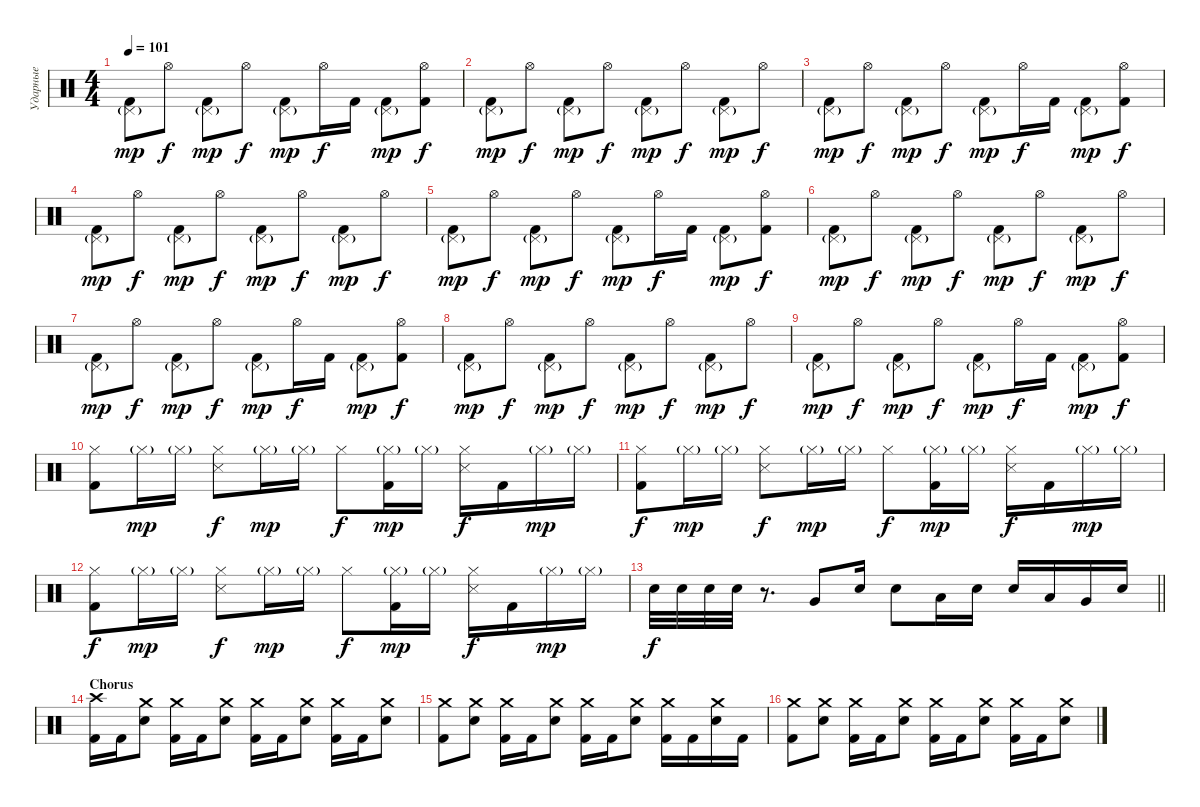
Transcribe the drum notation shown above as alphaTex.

\track ("Ударные" "Ударные") {instrument percussion}
\staff {score}
\articulation defaults
\ts (4 4)
\tempo 101
\clef neutral
\ks c
("Pedal Hi-Hat (hit)"{g} "Kick (hit) 2").8{dy mp} "Hi-Hat (open)".8{dy f} ("Pedal Hi-Hat (hit)"{g} "Kick (hit) 2").8{dy mp} "Hi-Hat (open)".8{dy f} ("Pedal Hi-Hat (hit)"{g} "Kick (hit) 2").8{dy mp} "Hi-Hat (open)".16{dy f} "Kick (hit) 2".16 ("Pedal Hi-Hat (hit)"{g} "Kick (hit) 2").8{dy mp} ("Hi-Hat (open)" "Kick (hit) 2").8{dy f} |
("Pedal Hi-Hat (hit)"{g} "Kick (hit) 2").8{dy mp} "Hi-Hat (open)".8{dy f} ("Pedal Hi-Hat (hit)"{g} "Kick (hit) 2").8{dy mp} "Hi-Hat (open)".8{dy f} ("Pedal Hi-Hat (hit)"{g} "Kick (hit) 2").8{dy mp} "Hi-Hat (open)".8{dy f} ("Pedal Hi-Hat (hit)"{g} "Kick (hit) 2").8{dy mp} "Hi-Hat (open)".8{dy f} |
("Pedal Hi-Hat (hit)"{g} "Kick (hit) 2").8{dy mp} "Hi-Hat (open)".8{dy f} ("Pedal Hi-Hat (hit)"{g} "Kick (hit) 2").8{dy mp} "Hi-Hat (open)".8{dy f} ("Pedal Hi-Hat (hit)"{g} "Kick (hit) 2").8{dy mp} "Hi-Hat (open)".16{dy f} "Kick (hit) 2".16 ("Pedal Hi-Hat (hit)"{g} "Kick (hit) 2").8{dy mp} ("Hi-Hat (open)" "Kick (hit) 2").8{dy f} |
("Pedal Hi-Hat (hit)"{g} "Kick (hit) 2").8{dy mp} "Hi-Hat (open)".8{dy f} ("Pedal Hi-Hat (hit)"{g} "Kick (hit) 2").8{dy mp} "Hi-Hat (open)".8{dy f} ("Pedal Hi-Hat (hit)"{g} "Kick (hit) 2").8{dy mp} "Hi-Hat (open)".8{dy f} ("Pedal Hi-Hat (hit)"{g} "Kick (hit) 2").8{dy mp} "Hi-Hat (open)".8{dy f} |
("Pedal Hi-Hat (hit)"{g} "Kick (hit) 2").8{dy mp} "Hi-Hat (open)".8{dy f} ("Pedal Hi-Hat (hit)"{g} "Kick (hit) 2").8{dy mp} "Hi-Hat (open)".8{dy f} ("Pedal Hi-Hat (hit)"{g} "Kick (hit) 2").8{dy mp} "Hi-Hat (open)".16{dy f} "Kick (hit) 2".16 ("Pedal Hi-Hat (hit)"{g} "Kick (hit) 2").8{dy mp} ("Hi-Hat (open)" "Kick (hit) 2").8{dy f} |
("Pedal Hi-Hat (hit)"{g} "Kick (hit) 2").8{dy mp} "Hi-Hat (open)".8{dy f} ("Pedal Hi-Hat (hit)"{g} "Kick (hit) 2").8{dy mp} "Hi-Hat (open)".8{dy f} ("Pedal Hi-Hat (hit)"{g} "Kick (hit) 2").8{dy mp} "Hi-Hat (open)".8{dy f} ("Pedal Hi-Hat (hit)"{g} "Kick (hit) 2").8{dy mp} "Hi-Hat (open)".8{dy f} |
("Pedal Hi-Hat (hit)"{g} "Kick (hit) 2").8{dy mp} "Hi-Hat (open)".8{dy f} ("Pedal Hi-Hat (hit)"{g} "Kick (hit) 2").8{dy mp} "Hi-Hat (open)".8{dy f} ("Pedal Hi-Hat (hit)"{g} "Kick (hit) 2").8{dy mp} "Hi-Hat (open)".16{dy f} "Kick (hit) 2".16 ("Pedal Hi-Hat (hit)"{g} "Kick (hit) 2").8{dy mp} ("Hi-Hat (open)" "Kick (hit) 2").8{dy f} |
("Pedal Hi-Hat (hit)"{g} "Kick (hit) 2").8{dy mp} "Hi-Hat (open)".8{dy f} ("Pedal Hi-Hat (hit)"{g} "Kick (hit) 2").8{dy mp} "Hi-Hat (open)".8{dy f} ("Pedal Hi-Hat (hit)"{g} "Kick (hit) 2").8{dy mp} "Hi-Hat (open)".8{dy f} ("Pedal Hi-Hat (hit)"{g} "Kick (hit) 2").8{dy mp} "Hi-Hat (open)".8{dy f} |
("Pedal Hi-Hat (hit)"{g} "Kick (hit) 2").8{dy mp} "Hi-Hat (open)".8{dy f} ("Pedal Hi-Hat (hit)"{g} "Kick (hit) 2").8{dy mp} "Hi-Hat (open)".8{dy f} ("Pedal Hi-Hat (hit)"{g} "Kick (hit) 2").8{dy mp} "Hi-Hat (open)".16{dy f} "Kick (hit) 2".16 ("Pedal Hi-Hat (hit)"{g} "Kick (hit) 2").8{dy mp} ("Hi-Hat (open)" "Kick (hit) 2").8{dy f} |
("Hi-Hat (closed)" "Kick (hit) 2").8 "Hi-Hat (closed)"{g}.16{dy mp} "Hi-Hat (closed)"{g}.16 ("Hi-Hat (closed)" "Snare (side stick) 3").8{dy f} "Hi-Hat (closed)"{g}.16{dy mp} "Hi-Hat (closed)"{g}.16 "Hi-Hat (closed)".8{dy f} ("Hi-Hat (closed)"{g} "Kick (hit) 2").16{dy mp} "Hi-Hat (closed)"{g}.16 ("Hi-Hat (closed)" "Snare (side stick) 3").16{dy f} "Kick (hit) 2".16 "Hi-Hat (closed)"{g}.16{dy mp} "Hi-Hat (closed)"{g}.16 |
("Hi-Hat (closed)" "Kick (hit) 2").8{dy f} "Hi-Hat (closed)"{g}.16{dy mp} "Hi-Hat (closed)"{g}.16 ("Hi-Hat (closed)" "Snare (side stick) 3").8{dy f} "Hi-Hat (closed)"{g}.16{dy mp} "Hi-Hat (closed)"{g}.16 "Hi-Hat (closed)".8{dy f} ("Hi-Hat (closed)"{g} "Kick (hit) 2").16{dy mp} "Hi-Hat (closed)"{g}.16 ("Hi-Hat (closed)" "Snare (side stick) 3").16{dy f} "Kick (hit) 2".16 "Hi-Hat (closed)"{g}.16{dy mp} "Hi-Hat (closed)"{g}.16 |
("Hi-Hat (closed)" "Kick (hit) 2").8{dy f} "Hi-Hat (closed)"{g}.16{dy mp} "Hi-Hat (closed)"{g}.16 ("Hi-Hat (closed)" "Snare (side stick) 3").8{dy f} "Hi-Hat (closed)"{g}.16{dy mp} "Hi-Hat (closed)"{g}.16 "Hi-Hat (closed)".8{dy f} ("Hi-Hat (closed)"{g} "Kick (hit) 2").16{dy mp} "Hi-Hat (closed)"{g}.16 ("Hi-Hat (closed)" "Snare (side stick) 3").16{dy f} "Kick (hit) 2".16 "Hi-Hat (closed)"{g}.16{dy mp} "Hi-Hat (closed)"{g}.16 |
\barLineRight lightlight "Electric Snare (hit)".32{dy f} "Electric Snare (hit)".32 "Electric Snare (hit)".32 "Electric Snare (hit)".32
r.8{d} "Very Low Tom (hit)".8 "Electric Snare (hit)".16 "Electric Snare (hit)".8 "Low Tom (hit)".16 "Electric Snare (hit)".16 "Electric Snare (hit)".16 "Low Tom (hit)".16 "Very Low Tom (hit)".16 "Electric Snare (hit)".16 |
\section ("" "Chorus")
("Crash high (hit)" "Kick (hit) 2").16 "Kick (hit) 2".16 ("Crash medium (hit)" "Electric Snare (hit)").8 ("Crash medium (hit)" "Kick (hit) 2").16 "Kick (hit) 2".16 ("Crash medium (hit)" "Electric Snare (hit)").8 ("Crash medium (hit)" "Kick (hit) 2").16 "Kick (hit) 2".16 ("Crash medium (hit)" "Electric Snare (hit)").8 ("Crash medium (hit)" "Kick (hit) 2").16 "Kick (hit) 2".16 ("Crash medium (hit)" "Electric Snare (hit)").8 |
("Crash medium (hit)" "Kick (hit) 2").8 ("Crash medium (hit)" "Electric Snare (hit)").8 ("Crash medium (hit)" "Kick (hit) 2").16 "Kick (hit) 2".16 ("Crash medium (hit)" "Electric Snare (hit)").8 ("Crash medium (hit)" "Kick (hit) 2").16 "Kick (hit) 2".16 ("Crash medium (hit)" "Electric Snare (hit)").8 ("Crash medium (hit)" "Kick (hit) 2").16 "Kick (hit) 2".16 ("Crash medium (hit)" "Electric Snare (hit)").16 "Kick (hit) 2".16 |
("Crash medium (hit)" "Kick (hit) 2").8 ("Crash medium (hit)" "Electric Snare (hit)").8 ("Crash medium (hit)" "Kick (hit) 2").16 "Kick (hit) 2".16 ("Crash medium (hit)" "Electric Snare (hit)").8 ("Crash medium (hit)" "Kick (hit) 2").16 "Kick (hit) 2".16 ("Crash medium (hit)" "Electric Snare (hit)").8 ("Crash medium (hit)" "Kick (hit) 2").16 "Kick (hit) 2".16 ("Crash medium (hit)" "Electric Snare (hit)").8
